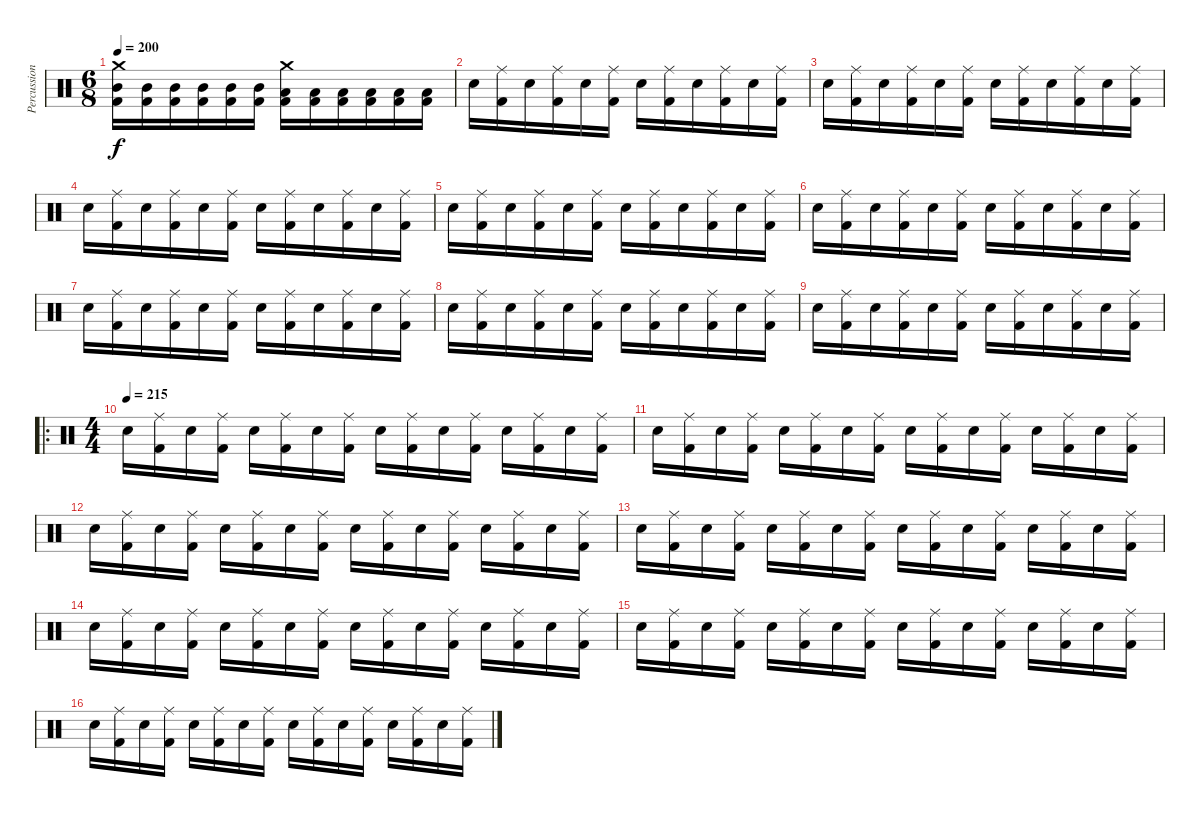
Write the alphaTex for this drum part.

\track ("Percussion" "Percussion") {instrument percussion}
\staff {score}
\articulation defaults
\ts (6 8)
\tempo 200
\clef neutral
\ks c
("Crash medium (hit)" "Mid Tom (hit)" "Kick (hit) 2").16{dy f} ("Mid Tom (hit)" "Kick (hit) 2").16 ("Mid Tom (hit)" "Kick (hit) 2").16 ("Mid Tom (hit)" "Kick (hit) 2").16 ("Mid Tom (hit)" "Kick (hit) 2").16 ("Mid Tom (hit)" "Kick (hit) 2").16 ("Crash medium (hit)" "Low Tom (hit)" "Kick (hit) 2").16 ("Low Tom (hit)" "Kick (hit) 2").16 ("Low Tom (hit)" "Kick (hit) 2").16 ("Low Tom (hit)" "Kick (hit) 2").16 ("Low Tom (hit)" "Kick (hit) 2").16 ("Low Tom (hit)" "Kick (hit) 2").16 |
"Electric Snare (hit)".16 ("Ride (middle)" "Kick (hit) 2").16 "Electric Snare (hit)".16 ("Ride (middle)" "Kick (hit) 2").16 "Electric Snare (hit)".16 ("Ride (middle)" "Kick (hit) 2").16 "Electric Snare (hit)".16 ("Ride (middle)" "Kick (hit) 2").16 "Electric Snare (hit)".16 ("Ride (middle)" "Kick (hit) 2").16 "Electric Snare (hit)".16 ("Ride (middle)" "Kick (hit) 2").16 |
"Electric Snare (hit)".16 ("Ride (middle)" "Kick (hit) 2").16 "Electric Snare (hit)".16 ("Ride (middle)" "Kick (hit) 2").16 "Electric Snare (hit)".16 ("Ride (middle)" "Kick (hit) 2").16 "Electric Snare (hit)".16 ("Ride (middle)" "Kick (hit) 2").16 "Electric Snare (hit)".16 ("Ride (middle)" "Kick (hit) 2").16 "Electric Snare (hit)".16 ("Ride (middle)" "Kick (hit) 2").16 |
"Electric Snare (hit)".16 ("Ride (middle)" "Kick (hit) 2").16 "Electric Snare (hit)".16 ("Ride (middle)" "Kick (hit) 2").16 "Electric Snare (hit)".16 ("Ride (middle)" "Kick (hit) 2").16 "Electric Snare (hit)".16 ("Ride (middle)" "Kick (hit) 2").16 "Electric Snare (hit)".16 ("Ride (middle)" "Kick (hit) 2").16 "Electric Snare (hit)".16 ("Ride (middle)" "Kick (hit) 2").16 |
"Electric Snare (hit)".16 ("Ride (middle)" "Kick (hit) 2").16 "Electric Snare (hit)".16 ("Ride (middle)" "Kick (hit) 2").16 "Electric Snare (hit)".16 ("Ride (middle)" "Kick (hit) 2").16 "Electric Snare (hit)".16 ("Ride (middle)" "Kick (hit) 2").16 "Electric Snare (hit)".16 ("Ride (middle)" "Kick (hit) 2").16 "Electric Snare (hit)".16 ("Ride (middle)" "Kick (hit) 2").16 |
"Electric Snare (hit)".16 ("Ride (middle)" "Kick (hit) 2").16 "Electric Snare (hit)".16 ("Ride (middle)" "Kick (hit) 2").16 "Electric Snare (hit)".16 ("Ride (middle)" "Kick (hit) 2").16 "Electric Snare (hit)".16 ("Ride (middle)" "Kick (hit) 2").16 "Electric Snare (hit)".16 ("Ride (middle)" "Kick (hit) 2").16 "Electric Snare (hit)".16 ("Ride (middle)" "Kick (hit) 2").16 |
"Electric Snare (hit)".16 ("Ride (middle)" "Kick (hit) 2").16 "Electric Snare (hit)".16 ("Ride (middle)" "Kick (hit) 2").16 "Electric Snare (hit)".16 ("Ride (middle)" "Kick (hit) 2").16 "Electric Snare (hit)".16 ("Ride (middle)" "Kick (hit) 2").16 "Electric Snare (hit)".16 ("Ride (middle)" "Kick (hit) 2").16 "Electric Snare (hit)".16 ("Ride (middle)" "Kick (hit) 2").16 |
"Electric Snare (hit)".16 ("Ride (middle)" "Kick (hit) 2").16 "Electric Snare (hit)".16 ("Ride (middle)" "Kick (hit) 2").16 "Electric Snare (hit)".16 ("Ride (middle)" "Kick (hit) 2").16 "Electric Snare (hit)".16 ("Ride (middle)" "Kick (hit) 2").16 "Electric Snare (hit)".16 ("Ride (middle)" "Kick (hit) 2").16 "Electric Snare (hit)".16 ("Ride (middle)" "Kick (hit) 2").16 |
"Electric Snare (hit)".16 ("Ride (middle)" "Kick (hit) 2").16 "Electric Snare (hit)".16 ("Ride (middle)" "Kick (hit) 2").16 "Electric Snare (hit)".16 ("Ride (middle)" "Kick (hit) 2").16 "Electric Snare (hit)".16 ("Ride (middle)" "Kick (hit) 2").16 "Electric Snare (hit)".16 ("Ride (middle)" "Kick (hit) 2").16 "Electric Snare (hit)".16 ("Ride (middle)" "Kick (hit) 2").16 |
\ro
\ts (4 4)
\tempo (215)
"Electric Snare (hit)".16 ("Ride (middle)" "Kick (hit) 2").16 "Electric Snare (hit)".16 ("Ride (middle)" "Kick (hit) 2").16 "Electric Snare (hit)".16 ("Ride (middle)" "Kick (hit) 2").16 "Electric Snare (hit)".16 ("Ride (middle)" "Kick (hit) 2").16 "Electric Snare (hit)".16 ("Ride (middle)" "Kick (hit) 2").16 "Electric Snare (hit)".16 ("Ride (middle)" "Kick (hit) 2").16 "Electric Snare (hit)".16 ("Ride (middle)" "Kick (hit) 2").16 "Electric Snare (hit)".16 ("Ride (middle)" "Kick (hit) 2").16 |
"Electric Snare (hit)".16 ("Ride (middle)" "Kick (hit) 2").16 "Electric Snare (hit)".16 ("Ride (middle)" "Kick (hit) 2").16 "Electric Snare (hit)".16 ("Ride (middle)" "Kick (hit) 2").16 "Electric Snare (hit)".16 ("Ride (middle)" "Kick (hit) 2").16 "Electric Snare (hit)".16 ("Ride (middle)" "Kick (hit) 2").16 "Electric Snare (hit)".16 ("Ride (middle)" "Kick (hit) 2").16 "Electric Snare (hit)".16 ("Ride (middle)" "Kick (hit) 2").16 "Electric Snare (hit)".16 ("Ride (middle)" "Kick (hit) 2").16 |
"Electric Snare (hit)".16 ("Ride (middle)" "Kick (hit) 2").16 "Electric Snare (hit)".16 ("Ride (middle)" "Kick (hit) 2").16 "Electric Snare (hit)".16 ("Ride (middle)" "Kick (hit) 2").16 "Electric Snare (hit)".16 ("Ride (middle)" "Kick (hit) 2").16 "Electric Snare (hit)".16 ("Ride (middle)" "Kick (hit) 2").16 "Electric Snare (hit)".16 ("Ride (middle)" "Kick (hit) 2").16 "Electric Snare (hit)".16 ("Ride (middle)" "Kick (hit) 2").16 "Electric Snare (hit)".16 ("Ride (middle)" "Kick (hit) 2").16 |
"Electric Snare (hit)".16 ("Ride (middle)" "Kick (hit) 2").16 "Electric Snare (hit)".16 ("Ride (middle)" "Kick (hit) 2").16 "Electric Snare (hit)".16 ("Ride (middle)" "Kick (hit) 2").16 "Electric Snare (hit)".16 ("Ride (middle)" "Kick (hit) 2").16 "Electric Snare (hit)".16 ("Ride (middle)" "Kick (hit) 2").16 "Electric Snare (hit)".16 ("Ride (middle)" "Kick (hit) 2").16 "Electric Snare (hit)".16 ("Ride (middle)" "Kick (hit) 2").16 "Electric Snare (hit)".16 ("Ride (middle)" "Kick (hit) 2").16 |
"Electric Snare (hit)".16 ("Ride (middle)" "Kick (hit) 2").16 "Electric Snare (hit)".16 ("Ride (middle)" "Kick (hit) 2").16 "Electric Snare (hit)".16 ("Ride (middle)" "Kick (hit) 2").16 "Electric Snare (hit)".16 ("Ride (middle)" "Kick (hit) 2").16 "Electric Snare (hit)".16 ("Ride (middle)" "Kick (hit) 2").16 "Electric Snare (hit)".16 ("Ride (middle)" "Kick (hit) 2").16 "Electric Snare (hit)".16 ("Ride (middle)" "Kick (hit) 2").16 "Electric Snare (hit)".16 ("Ride (middle)" "Kick (hit) 2").16 |
"Electric Snare (hit)".16 ("Ride (middle)" "Kick (hit) 2").16 "Electric Snare (hit)".16 ("Ride (middle)" "Kick (hit) 2").16 "Electric Snare (hit)".16 ("Ride (middle)" "Kick (hit) 2").16 "Electric Snare (hit)".16 ("Ride (middle)" "Kick (hit) 2").16 "Electric Snare (hit)".16 ("Ride (middle)" "Kick (hit) 2").16 "Electric Snare (hit)".16 ("Ride (middle)" "Kick (hit) 2").16 "Electric Snare (hit)".16 ("Ride (middle)" "Kick (hit) 2").16 "Electric Snare (hit)".16 ("Ride (middle)" "Kick (hit) 2").16 |
"Electric Snare (hit)".16 ("Ride (middle)" "Kick (hit) 2").16 "Electric Snare (hit)".16 ("Ride (middle)" "Kick (hit) 2").16 "Electric Snare (hit)".16 ("Ride (middle)" "Kick (hit) 2").16 "Electric Snare (hit)".16 ("Ride (middle)" "Kick (hit) 2").16 "Electric Snare (hit)".16 ("Ride (middle)" "Kick (hit) 2").16 "Electric Snare (hit)".16 ("Ride (middle)" "Kick (hit) 2").16 "Electric Snare (hit)".16 ("Ride (middle)" "Kick (hit) 2").16 "Electric Snare (hit)".16 ("Ride (middle)" "Kick (hit) 2").16
